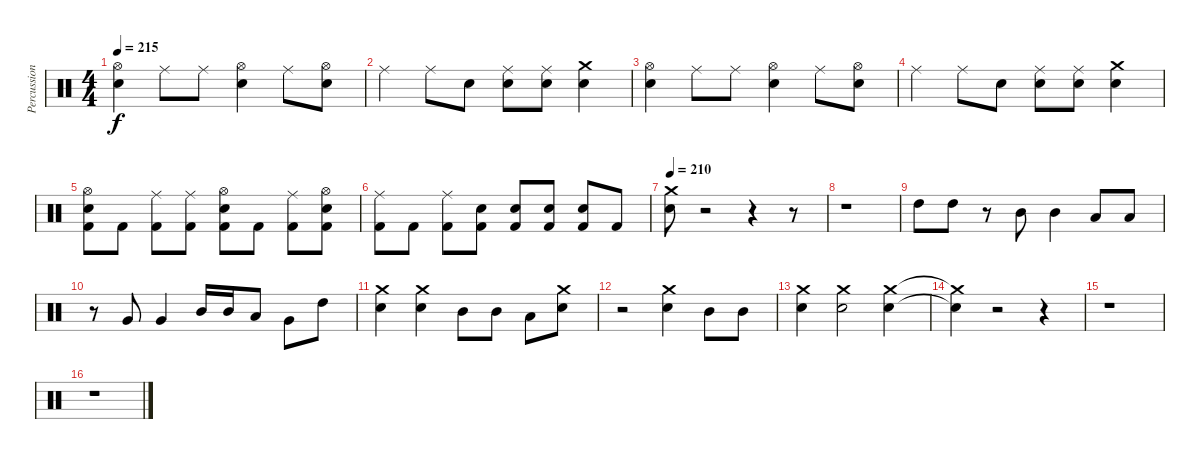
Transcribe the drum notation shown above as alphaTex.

\track ("Percussion" "Percussion") {instrument percussion}
\staff {score}
\articulation defaults
\ts (4 4)
\tempo 215
\clef neutral
\ks c
("Hi-Hat (open)" "Snare (hit) 2").4{dy f} "Ride (middle)".8 "Ride (middle)".8 ("Hi-Hat (open)" "Snare (hit) 2").4 "Ride (middle)".8 ("Hi-Hat (open)" "Snare (hit) 2").8 |
"Ride (middle)".4 "Ride (middle)".8 "Snare (hit) 2".8 ("Ride (middle)" "Snare (hit) 2").8 ("Ride (middle)" "Snare (hit) 2").8 ("Crash medium (hit)" "Snare (hit) 2").4 |
("Hi-Hat (open)" "Snare (hit) 2").4 "Ride (middle)".8 "Ride (middle)".8 ("Hi-Hat (open)" "Snare (hit) 2").4 "Ride (middle)".8 ("Hi-Hat (open)" "Snare (hit) 2").8 |
"Ride (middle)".4 "Ride (middle)".8 "Snare (hit) 2".8 ("Ride (middle)" "Snare (hit) 2").8 ("Ride (middle)" "Snare (hit) 2").8 ("Crash medium (hit)" "Snare (hit) 2").4 |
("Hi-Hat (open)" "Snare (hit) 2" "Kick (hit) 2").8 "Kick (hit) 2".8 ("Ride (middle)" "Kick (hit) 2").8 ("Ride (middle)" "Kick (hit) 2").8 ("Hi-Hat (open)" "Snare (hit) 2" "Kick (hit) 2").8 "Kick (hit) 2".8 ("Ride (middle)" "Kick (hit) 2").8 ("Hi-Hat (open)" "Snare (hit) 2" "Kick (hit) 2").8 |
("Ride (middle)" "Kick (hit) 2").8 "Kick (hit) 2".8 ("Ride (middle)" "Kick (hit) 2").8 ("Snare (hit) 2" "Kick (hit) 2").8 ("Snare (hit) 2" "Kick (hit) 2").8 ("Snare (hit) 2" "Kick (hit) 2").8 ("Snare (hit) 2" "Kick (hit) 2").8 "Kick (hit) 2".8 |
\tempo 210
("Crash medium (hit)" "Electric Snare (hit)").8 r.2 r.4 r.8 |
r.1 |
"High Tom (hit)".8 "High Tom (hit)".8 r.8 "Mid Tom (hit)".8 "Mid Tom (hit)".4 "Low Tom (hit)".8 "Low Tom (hit)".8 |
r.8 "Very Low Tom (hit)".8 "Very Low Tom (hit)".4 "Mid Tom (hit)".16 "Mid Tom (hit)".16 "Low Tom (hit)".8 "Very Low Tom (hit)".8 "High Tom (hit)".8 |
("Crash medium (hit)" "Snare (hit) 2").4 ("Crash medium (hit)" "Snare (hit) 2").4 "Mid Tom (hit)".8 "Mid Tom (hit)".8 "Low Tom (hit)".8 ("Crash medium (hit)" "Snare (hit) 2").8 |
r.2 ("Crash medium (hit)" "Snare (hit) 2").4 "Mid Tom (hit)".8 "Mid Tom (hit)".8 |
("Crash medium (hit)" "Snare (hit) 2").4 ("Crash medium (hit)" "Snare (hit) 2").2 ("Crash medium (hit)" "Snare (hit) 2").4 |
("Crash medium (hit)"{t} "Snare (hit) 2"{t}).4 r.2 r.4 |
r.1 |
r.1
